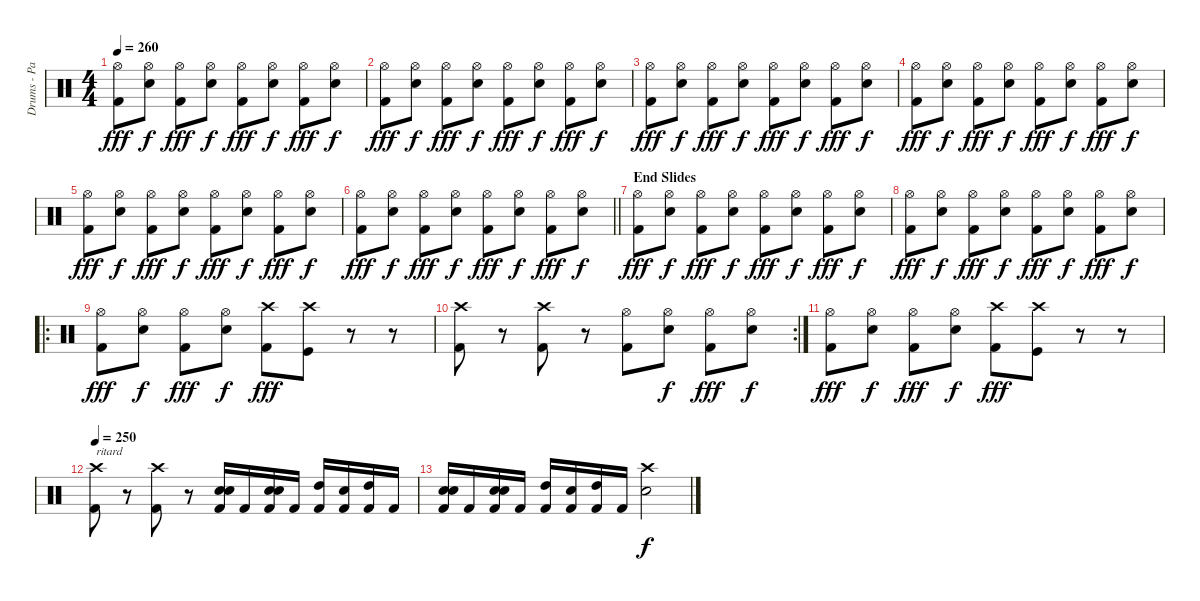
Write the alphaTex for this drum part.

\track ("Drums - Paul Mazurkiewicz" "Drums - Pa") {instrument percussion}
\staff {score}
\articulation defaults
\ts (4 4)
\tempo 260
\clef neutral
\ks c
("Hi-Hat (open)" "Kick (hit) 2").8{dy fff} ("Hi-Hat (open)" "Snare (hit) 2").8{dy f} ("Hi-Hat (open)" "Kick (hit) 2").8{dy fff} ("Hi-Hat (open)" "Snare (hit) 2").8{dy f} ("Hi-Hat (open)" "Kick (hit) 2").8{dy fff} ("Hi-Hat (open)" "Snare (hit) 2").8{dy f} ("Hi-Hat (open)" "Kick (hit) 2").8{dy fff} ("Hi-Hat (open)" "Snare (hit) 2").8{dy f} |
("Hi-Hat (open)" "Kick (hit) 2").8{dy fff} ("Hi-Hat (open)" "Snare (hit) 2").8{dy f} ("Hi-Hat (open)" "Kick (hit) 2").8{dy fff} ("Hi-Hat (open)" "Snare (hit) 2").8{dy f} ("Hi-Hat (open)" "Kick (hit) 2").8{dy fff} ("Hi-Hat (open)" "Snare (hit) 2").8{dy f} ("Hi-Hat (open)" "Kick (hit) 2").8{dy fff} ("Hi-Hat (open)" "Snare (hit) 2").8{dy f} |
("Hi-Hat (open)" "Kick (hit) 2").8{dy fff} ("Hi-Hat (open)" "Snare (hit) 2").8{dy f} ("Hi-Hat (open)" "Kick (hit) 2").8{dy fff} ("Hi-Hat (open)" "Snare (hit) 2").8{dy f} ("Hi-Hat (open)" "Kick (hit) 2").8{dy fff} ("Hi-Hat (open)" "Snare (hit) 2").8{dy f} ("Hi-Hat (open)" "Kick (hit) 2").8{dy fff} ("Hi-Hat (open)" "Snare (hit) 2").8{dy f} |
("Hi-Hat (open)" "Kick (hit) 2").8{dy fff} ("Hi-Hat (open)" "Snare (hit) 2").8{dy f} ("Hi-Hat (open)" "Kick (hit) 2").8{dy fff} ("Hi-Hat (open)" "Snare (hit) 2").8{dy f} ("Hi-Hat (open)" "Kick (hit) 2").8{dy fff} ("Hi-Hat (open)" "Snare (hit) 2").8{dy f} ("Hi-Hat (open)" "Kick (hit) 2").8{dy fff} ("Hi-Hat (open)" "Snare (hit) 2").8{dy f} |
("Hi-Hat (open)" "Kick (hit) 2").8{dy fff} ("Hi-Hat (open)" "Snare (hit) 2").8{dy f} ("Hi-Hat (open)" "Kick (hit) 2").8{dy fff} ("Hi-Hat (open)" "Snare (hit) 2").8{dy f} ("Hi-Hat (open)" "Kick (hit) 2").8{dy fff} ("Hi-Hat (open)" "Snare (hit) 2").8{dy f} ("Hi-Hat (open)" "Kick (hit) 2").8{dy fff} ("Hi-Hat (open)" "Snare (hit) 2").8{dy f} |
\barLineRight lightlight
("Hi-Hat (open)" "Kick (hit) 2").8{dy fff} ("Hi-Hat (open)" "Snare (hit) 2").8{dy f} ("Hi-Hat (open)" "Kick (hit) 2").8{dy fff} ("Hi-Hat (open)" "Snare (hit) 2").8{dy f} ("Hi-Hat (open)" "Kick (hit) 2").8{dy fff} ("Hi-Hat (open)" "Snare (hit) 2").8{dy f} ("Hi-Hat (open)" "Kick (hit) 2").8{dy fff} ("Hi-Hat (open)" "Snare (hit) 2").8{dy f} |
\section ("" "End Slides")
("Hi-Hat (open)" "Kick (hit) 2").8{dy fff} ("Hi-Hat (open)" "Snare (hit) 2").8{dy f} ("Hi-Hat (open)" "Kick (hit) 2").8{dy fff} ("Hi-Hat (open)" "Snare (hit) 2").8{dy f} ("Hi-Hat (open)" "Kick (hit) 2").8{dy fff} ("Hi-Hat (open)" "Snare (hit) 2").8{dy f} ("Hi-Hat (open)" "Kick (hit) 2").8{dy fff} ("Hi-Hat (open)" "Snare (hit) 2").8{dy f} |
("Hi-Hat (open)" "Kick (hit) 2").8{dy fff} ("Hi-Hat (open)" "Snare (hit) 2").8{dy f} ("Hi-Hat (open)" "Kick (hit) 2").8{dy fff} ("Hi-Hat (open)" "Snare (hit) 2").8{dy f} ("Hi-Hat (open)" "Kick (hit) 2").8{dy fff} ("Hi-Hat (open)" "Snare (hit) 2").8{dy f} ("Hi-Hat (open)" "Kick (hit) 2").8{dy fff} ("Hi-Hat (open)" "Snare (hit) 2").8{dy f} |
\ro
("Hi-Hat (open)" "Kick (hit) 2").8{dy fff} ("Hi-Hat (open)" "Snare (hit) 2").8{dy f} ("Hi-Hat (open)" "Kick (hit) 2").8{dy fff} ("Hi-Hat (open)" "Snare (hit) 2").8{dy f} ("Crash high (hit)" "Kick (hit) 2").8{dy fff} ("Crash high (hit)" "Kick (hit)").8 r.8 r.8 |
\rc 2
("Crash high (hit)" "Kick (hit) 2").8 r.8 ("Crash high (hit)" "Kick (hit) 2").8 r.8 ("Hi-Hat (open)" "Kick (hit) 2").8 ("Hi-Hat (open)" "Snare (hit) 2").8{dy f} ("Hi-Hat (open)" "Kick (hit) 2").8{dy fff} ("Hi-Hat (open)" "Snare (hit) 2").8{dy f} |
("Hi-Hat (open)" "Kick (hit) 2").8{dy fff} ("Hi-Hat (open)" "Snare (hit) 2").8{dy f} ("Hi-Hat (open)" "Kick (hit) 2").8{dy fff} ("Hi-Hat (open)" "Snare (hit) 2").8{dy f} ("Crash high (hit)" "Kick (hit) 2").8{dy fff} ("Crash high (hit)" "Kick (hit)").8 r.8 r.8 |
\tempo 250
("Crash high (hit)" "Kick (hit) 2").8{txt "ritard"} r.8 ("Crash high (hit)" "Kick (hit) 2").8 r.8 ("Snare (hit) 2" "Snare (hit) 2" "Kick (hit) 2").16 "Kick (hit) 2".16 ("Snare (hit) 2" "Snare (hit) 2" "Kick (hit) 2").16 "Kick (hit) 2".16 ("High Tom (hit)" "Kick (hit) 2").16 ("Snare (hit) 2" "Kick (hit) 2").16 ("High Tom (hit)" "Kick (hit) 2").16 "Kick (hit) 2".16 |
("Snare (hit) 2" "Snare (hit) 2" "Kick (hit) 2").16 "Kick (hit) 2".16 ("Snare (hit) 2" "Snare (hit) 2" "Kick (hit) 2").16 "Kick (hit) 2".16 ("High Tom (hit)" "Kick (hit) 2").16 ("Snare (hit) 2" "Kick (hit) 2").16 ("High Tom (hit)" "Kick (hit) 2").16 "Kick (hit) 2".16 ("Crash high (hit)" "Snare (hit) 2").2{dy f}
